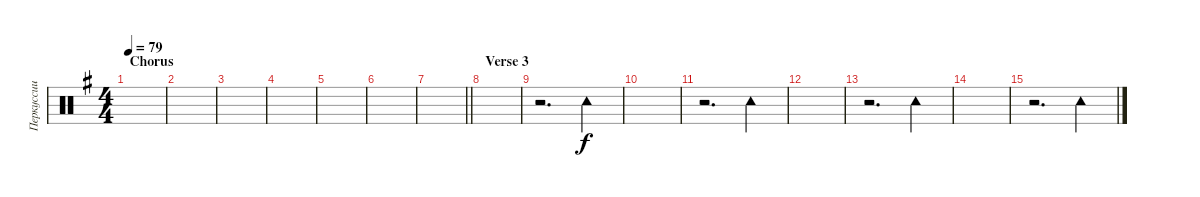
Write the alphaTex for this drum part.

\track ("Перкуссии" "Перкуссии") {instrument percussion}
\staff {score}
\articulation defaults
\ts (4 4)
\section ("" "Chorus")
\tempo 79
\clef neutral
\ks eminor
|
|
|
|
|
|
\barLineRight lightlight
|
\section ("" "Verse 3")
|
r.2{d} "Tambourine (hit)".4 |
|
r.2{d} "Tambourine (hit)".4 |
|
r.2{d} "Tambourine (hit)".4 |
|
r.2{d} "Tambourine (hit)".4
